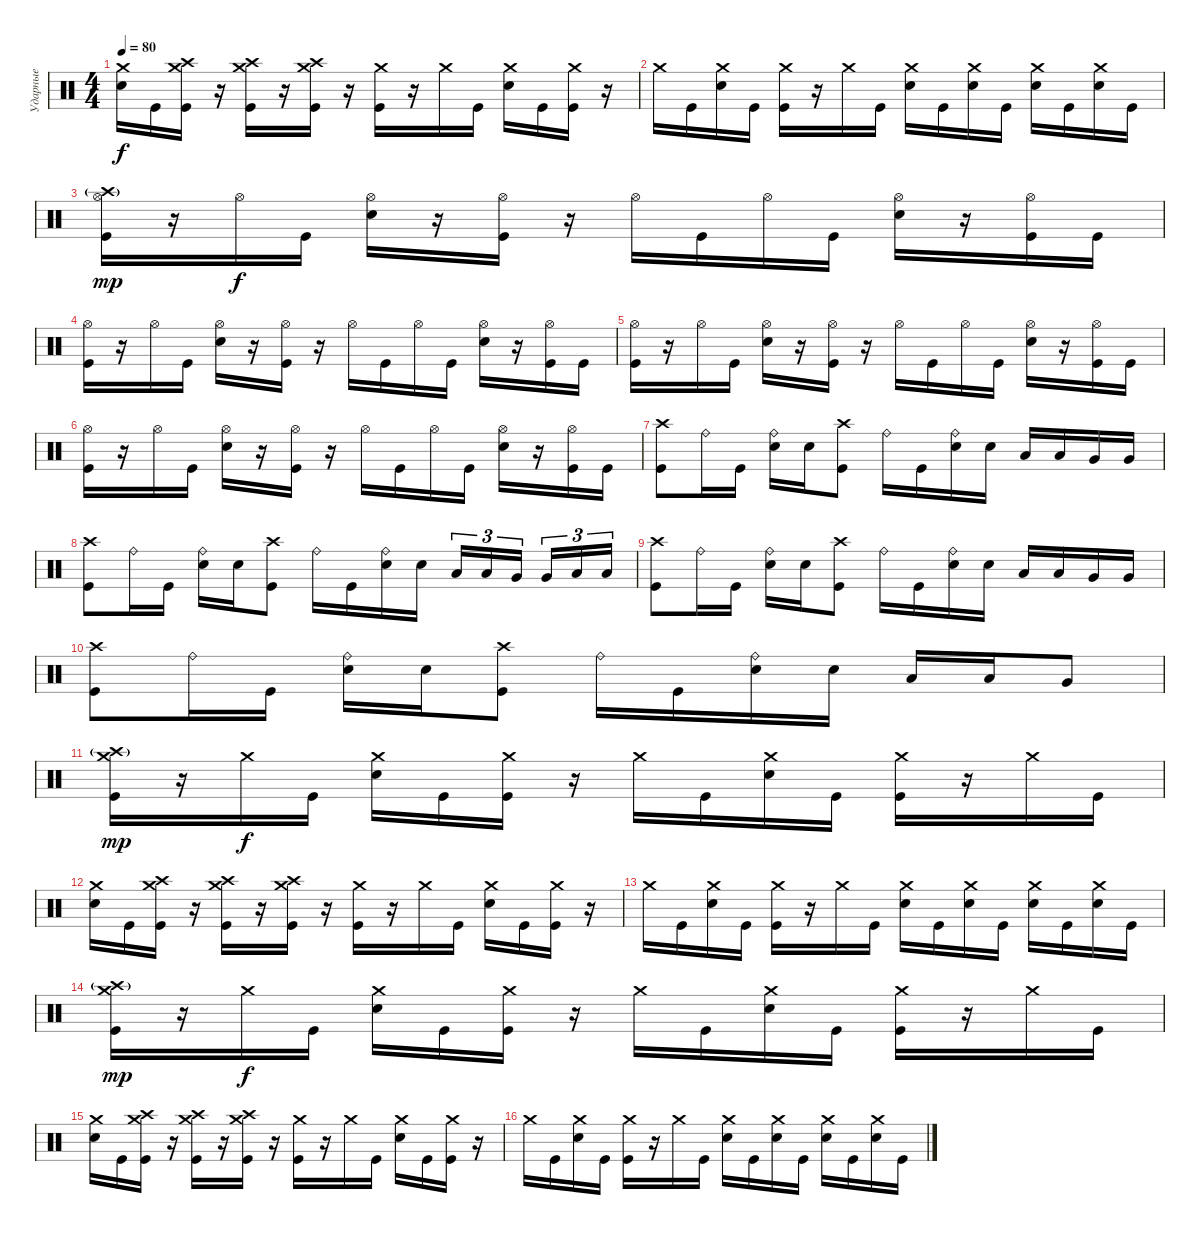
\track ("Ударные" "Ударные") {instrument percussion}
\staff {score}
\articulation defaults
\ts (4 4)
\tempo 80
\clef neutral
\ks c
("Crash medium (hit)" "Electric Snare (hit)").16{dy f} "Kick (hit)".16 ("Crash high (hit)" "Crash medium (hit)" "Kick (hit)").16 r.16 ("Crash high (hit)" "Crash medium (hit)" "Kick (hit)").16 r.16 ("Crash high (hit)" "Crash medium (hit)" "Kick (hit)").16 r.16 ("Crash medium (hit)" "Kick (hit)").16 r.16 "Crash medium (hit)".16 "Kick (hit)".16 ("Crash medium (hit)" "Electric Snare (hit)").16 "Kick (hit)".16 ("Crash medium (hit)" "Kick (hit)").16 r.16 |
"Crash medium (hit)".16 "Kick (hit)".16 ("Crash medium (hit)" "Electric Snare (hit)").16 "Kick (hit)".16 ("Crash medium (hit)" "Kick (hit)").16 r.16 "Crash medium (hit)".16 "Kick (hit)".16 ("Crash medium (hit)" "Electric Snare (hit)").16 "Kick (hit)".16 ("Crash medium (hit)" "Electric Snare (hit)").16 "Kick (hit)".16 ("Crash medium (hit)" "Electric Snare (hit)").16 "Kick (hit)".16 ("Crash medium (hit)" "Electric Snare (hit)").16 "Kick (hit)".16 |
("Crash high (hit)"{g} "Hi-Hat (open)" "Kick (hit)").16{dy mp} r.16 "Hi-Hat (open)".16{dy f} "Kick (hit)".16 ("Hi-Hat (open)" "Electric Snare (hit)").16 r.16 ("Hi-Hat (open)" "Kick (hit)").16 r.16 "Hi-Hat (open)".16 "Kick (hit)".16 "Hi-Hat (open)".16 "Kick (hit)".16 ("Hi-Hat (open)" "Electric Snare (hit)").16 r.16 ("Hi-Hat (open)" "Kick (hit)").16 "Kick (hit)".16 |
("Hi-Hat (open)" "Kick (hit)").16 r.16 "Hi-Hat (open)".16 "Kick (hit)".16 ("Hi-Hat (open)" "Electric Snare (hit)").16 r.16 ("Hi-Hat (open)" "Kick (hit)").16 r.16 "Hi-Hat (open)".16 "Kick (hit)".16 "Hi-Hat (open)".16 "Kick (hit)".16 ("Hi-Hat (open)" "Electric Snare (hit)").16 r.16 ("Hi-Hat (open)" "Kick (hit)").16 "Kick (hit)".16 |
("Hi-Hat (open)" "Kick (hit)").16 r.16 "Hi-Hat (open)".16 "Kick (hit)".16 ("Hi-Hat (open)" "Electric Snare (hit)").16 r.16 ("Hi-Hat (open)" "Kick (hit)").16 r.16 "Hi-Hat (open)".16 "Kick (hit)".16 "Hi-Hat (open)".16 "Kick (hit)".16 ("Hi-Hat (open)" "Electric Snare (hit)").16 r.16 ("Hi-Hat (open)" "Kick (hit)").16 "Kick (hit)".16 |
("Hi-Hat (open)" "Kick (hit)").16 r.16 "Hi-Hat (open)".16 "Kick (hit)".16 ("Hi-Hat (open)" "Electric Snare (hit)").16 r.16 ("Hi-Hat (open)" "Kick (hit)").16 r.16 "Hi-Hat (open)".16 "Kick (hit)".16 "Hi-Hat (open)".16 "Kick (hit)".16 ("Hi-Hat (open)" "Electric Snare (hit)").16 r.16 ("Hi-Hat (open)" "Kick (hit)").16 "Kick (hit)".16 |
("Crash high (hit)" "Kick (hit)").8 "Ride (bell)".16 "Kick (hit)".16 ("Electric Snare (hit)" "Ride (bell)").16 "Electric Snare (hit)".16 ("Crash high (hit)" "Kick (hit)").8 "Ride (bell)".16 "Kick (hit)".16 ("Electric Snare (hit)" "Ride (bell)").16 "Electric Snare (hit)".16 "Low Tom (hit)".16 "Low Tom (hit)".16 "Very Low Tom (hit)".16 "Very Low Tom (hit)".16 |
("Crash high (hit)" "Kick (hit)").8 "Ride (bell)".16 "Kick (hit)".16 ("Electric Snare (hit)" "Ride (bell)").16 "Electric Snare (hit)".16 ("Crash high (hit)" "Kick (hit)").8 "Ride (bell)".16 "Kick (hit)".16 ("Electric Snare (hit)" "Ride (bell)").16 "Electric Snare (hit)".16 "Low Tom (hit)".16{tu (3 2)} "Low Tom (hit)".16{tu (3 2)} "Very Low Tom (hit)".16{tu (3 2) beam splitsecondary} "Very Low Tom (hit)".16{tu (3 2)} "Low Floor Tom (hit)".16{tu (3 2)} "Low Floor Tom (hit)".16{tu (3 2)} |
("Crash high (hit)" "Kick (hit)").8 "Ride (bell)".16 "Kick (hit)".16 ("Electric Snare (hit)" "Ride (bell)").16 "Electric Snare (hit)".16 ("Crash high (hit)" "Kick (hit)").8 "Ride (bell)".16 "Kick (hit)".16 ("Electric Snare (hit)" "Ride (bell)").16 "Electric Snare (hit)".16 "Low Tom (hit)".16 "Low Tom (hit)".16 "Very Low Tom (hit)".16 "Very Low Tom (hit)".16 |
("Crash high (hit)" "Kick (hit)").8 "Ride (bell)".16 "Kick (hit)".16 ("Electric Snare (hit)" "Ride (bell)").16 "Electric Snare (hit)".16 ("Crash high (hit)" "Kick (hit)").8 "Ride (bell)".16 "Kick (hit)".16 ("Electric Snare (hit)" "Ride (bell)").16 "Electric Snare (hit)".16 "Low Tom (hit)".16 "Low Tom (hit)".16 "Very Low Tom (hit)".8 |
("Crash high (hit)"{g} "Crash medium (hit)" "Kick (hit)").16{dy mp} r.16 "Crash medium (hit)".16{dy f} "Kick (hit)".16 ("Crash medium (hit)" "Electric Snare (hit)").16 "Kick (hit)".16 ("Crash medium (hit)" "Kick (hit)").16 r.16 "Crash medium (hit)".16 "Kick (hit)".16 ("Crash medium (hit)" "Electric Snare (hit)").16 "Kick (hit)".16 ("Crash medium (hit)" "Kick (hit)").16 r.16 "Crash medium (hit)".16 "Kick (hit)".16 |
("Crash medium (hit)" "Electric Snare (hit)").16 "Kick (hit)".16 ("Crash high (hit)" "Crash medium (hit)" "Kick (hit)").16 r.16 ("Crash high (hit)" "Crash medium (hit)" "Kick (hit)").16 r.16 ("Crash high (hit)" "Crash medium (hit)" "Kick (hit)").16 r.16 ("Crash medium (hit)" "Kick (hit)").16 r.16 "Crash medium (hit)".16 "Kick (hit)".16 ("Crash medium (hit)" "Electric Snare (hit)").16 "Kick (hit)".16 ("Crash medium (hit)" "Kick (hit)").16 r.16 |
"Crash medium (hit)".16 "Kick (hit)".16 ("Crash medium (hit)" "Electric Snare (hit)").16 "Kick (hit)".16 ("Crash medium (hit)" "Kick (hit)").16 r.16 "Crash medium (hit)".16 "Kick (hit)".16 ("Crash medium (hit)" "Electric Snare (hit)").16 "Kick (hit)".16 ("Crash medium (hit)" "Electric Snare (hit)").16 "Kick (hit)".16 ("Crash medium (hit)" "Electric Snare (hit)").16 "Kick (hit)".16 ("Crash medium (hit)" "Electric Snare (hit)").16 "Kick (hit)".16 |
("Crash high (hit)"{g} "Crash medium (hit)" "Kick (hit)").16{dy mp} r.16 "Crash medium (hit)".16{dy f} "Kick (hit)".16 ("Crash medium (hit)" "Electric Snare (hit)").16 "Kick (hit)".16 ("Crash medium (hit)" "Kick (hit)").16 r.16 "Crash medium (hit)".16 "Kick (hit)".16 ("Crash medium (hit)" "Electric Snare (hit)").16 "Kick (hit)".16 ("Crash medium (hit)" "Kick (hit)").16 r.16 "Crash medium (hit)".16 "Kick (hit)".16 |
("Crash medium (hit)" "Electric Snare (hit)").16 "Kick (hit)".16 ("Crash high (hit)" "Crash medium (hit)" "Kick (hit)").16 r.16 ("Crash high (hit)" "Crash medium (hit)" "Kick (hit)").16 r.16 ("Crash high (hit)" "Crash medium (hit)" "Kick (hit)").16 r.16 ("Crash medium (hit)" "Kick (hit)").16 r.16 "Crash medium (hit)".16 "Kick (hit)".16 ("Crash medium (hit)" "Electric Snare (hit)").16 "Kick (hit)".16 ("Crash medium (hit)" "Kick (hit)").16 r.16 |
"Crash medium (hit)".16 "Kick (hit)".16 ("Crash medium (hit)" "Electric Snare (hit)").16 "Kick (hit)".16 ("Crash medium (hit)" "Kick (hit)").16 r.16 "Crash medium (hit)".16 "Kick (hit)".16 ("Crash medium (hit)" "Electric Snare (hit)").16 "Kick (hit)".16 ("Crash medium (hit)" "Electric Snare (hit)").16 "Kick (hit)".16 ("Crash medium (hit)" "Electric Snare (hit)").16 "Kick (hit)".16 ("Crash medium (hit)" "Electric Snare (hit)").16 "Kick (hit)".16
